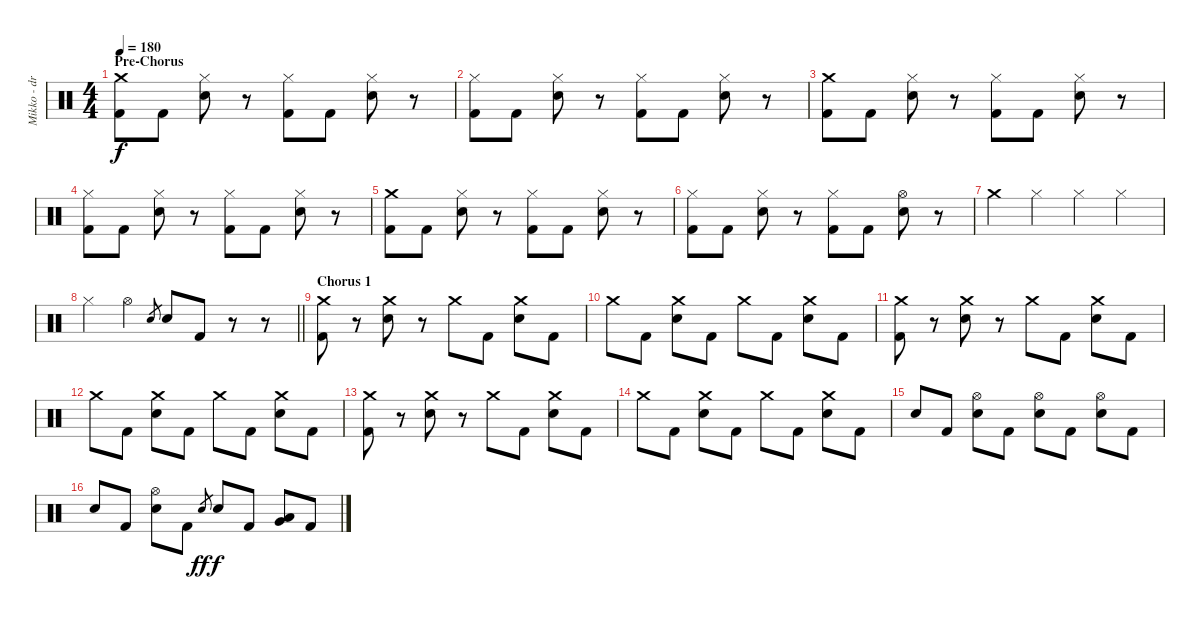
\track ("Mikko - drums" "Mikko - dr") {instrument percussion}
\staff {score}
\articulation defaults
\ts (4 4)
\section ("" "Pre-Chorus")
\tempo 180
\clef neutral
\ks c
("Crash medium (hit)" "Kick (hit) 2").8{dy f} "Kick (hit) 2".8 ("Hi-Hat (closed)" "Snare (hit) 2").8 r.8 ("Hi-Hat (closed)" "Kick (hit) 2").8 "Kick (hit) 2".8 ("Hi-Hat (closed)" "Snare (hit) 2").8 r.8 |
("Hi-Hat (closed)" "Kick (hit) 2").8 "Kick (hit) 2".8 ("Hi-Hat (closed)" "Snare (hit) 2").8 r.8 ("Hi-Hat (closed)" "Kick (hit) 2").8 "Kick (hit) 2".8 ("Hi-Hat (closed)" "Snare (hit) 2").8 r.8 |
("Crash medium (hit)" "Kick (hit) 2").8 "Kick (hit) 2".8 ("Hi-Hat (closed)" "Snare (hit) 2").8 r.8 ("Hi-Hat (closed)" "Kick (hit) 2").8 "Kick (hit) 2".8 ("Hi-Hat (closed)" "Snare (hit) 2").8 r.8 |
("Hi-Hat (closed)" "Kick (hit) 2").8 "Kick (hit) 2".8 ("Hi-Hat (closed)" "Snare (hit) 2").8 r.8 ("Hi-Hat (closed)" "Kick (hit) 2").8 "Kick (hit) 2".8 ("Hi-Hat (closed)" "Snare (hit) 2").8 r.8 |
("Crash medium (hit)" "Kick (hit) 2").8 "Kick (hit) 2".8 ("Hi-Hat (closed)" "Snare (hit) 2").8 r.8 ("Hi-Hat (closed)" "Kick (hit) 2").8 "Kick (hit) 2".8 ("Hi-Hat (closed)" "Snare (hit) 2").8 r.8 |
("Hi-Hat (closed)" "Kick (hit) 2").8 "Kick (hit) 2".8 ("Hi-Hat (closed)" "Snare (hit) 2").8 r.8 ("Hi-Hat (closed)" "Kick (hit) 2").8 "Kick (hit) 2".8 ("Hi-Hat (open)" "Snare (hit) 2").8 r.8 |
"Crash medium (hit)".4 "Hi-Hat (closed)".4 "Hi-Hat (closed)".4 "Hi-Hat (closed)".4 |
\barLineRight lightlight "Hi-Hat (closed)".4 "Hi-Hat (open)".4 "Snare (hit) 2".8{gr} "Snare (hit) 2".8 "Kick (hit) 2".8
r.8 r.8 |
\section ("" "Chorus 1")
("Crash medium (hit)" "Kick (hit) 2").8 r.8 ("Crash medium (hit)" "Snare (hit) 2").8 r.8 "Crash medium (hit)".8 "Kick (hit) 2".8 ("Crash medium (hit)" "Snare (hit) 2").8 "Kick (hit) 2".8 |
"Crash medium (hit)".8 "Kick (hit) 2".8 ("Crash medium (hit)" "Snare (hit) 2").8 "Kick (hit) 2".8 "Crash medium (hit)".8 "Kick (hit) 2".8 ("Crash medium (hit)" "Snare (hit) 2").8 "Kick (hit) 2".8 |
("Crash medium (hit)" "Kick (hit) 2").8 r.8 ("Crash medium (hit)" "Snare (hit) 2").8 r.8 "Crash medium (hit)".8 "Kick (hit) 2".8 ("Crash medium (hit)" "Snare (hit) 2").8 "Kick (hit) 2".8 |
"Crash medium (hit)".8 "Kick (hit) 2".8 ("Crash medium (hit)" "Snare (hit) 2").8 "Kick (hit) 2".8 "Crash medium (hit)".8 "Kick (hit) 2".8 ("Crash medium (hit)" "Snare (hit) 2").8 "Kick (hit) 2".8 |
("Crash medium (hit)" "Kick (hit) 2").8 r.8 ("Crash medium (hit)" "Snare (hit) 2").8 r.8 "Crash medium (hit)".8 "Kick (hit) 2".8 ("Crash medium (hit)" "Snare (hit) 2").8 "Kick (hit) 2".8 |
"Crash medium (hit)".8 "Kick (hit) 2".8 ("Crash medium (hit)" "Snare (hit) 2").8 "Kick (hit) 2".8 "Crash medium (hit)".8 "Kick (hit) 2".8 ("Crash medium (hit)" "Snare (hit) 2").8 "Kick (hit) 2".8 |
"Snare (hit) 2".8 "Kick (hit) 2".8 ("Hi-Hat (open)" "Snare (hit) 2").8 "Kick (hit) 2".8 ("Hi-Hat (open)" "Snare (hit) 2").8 "Kick (hit) 2".8 ("Hi-Hat (open)" "Snare (hit) 2").8 "Kick (hit) 2".8 |
"Snare (hit) 2".8 "Kick (hit) 2".8 ("Hi-Hat (open)" "Snare (hit) 2").8 "Kick (hit) 2".8 "Snare (hit) 2".8{gr dy ff} "Snare (hit) 2".8{dy f} "Kick (hit) 2".8 ("Low Tom (hit)" "Very Low Tom (hit)").8 "Kick (hit) 2".8
